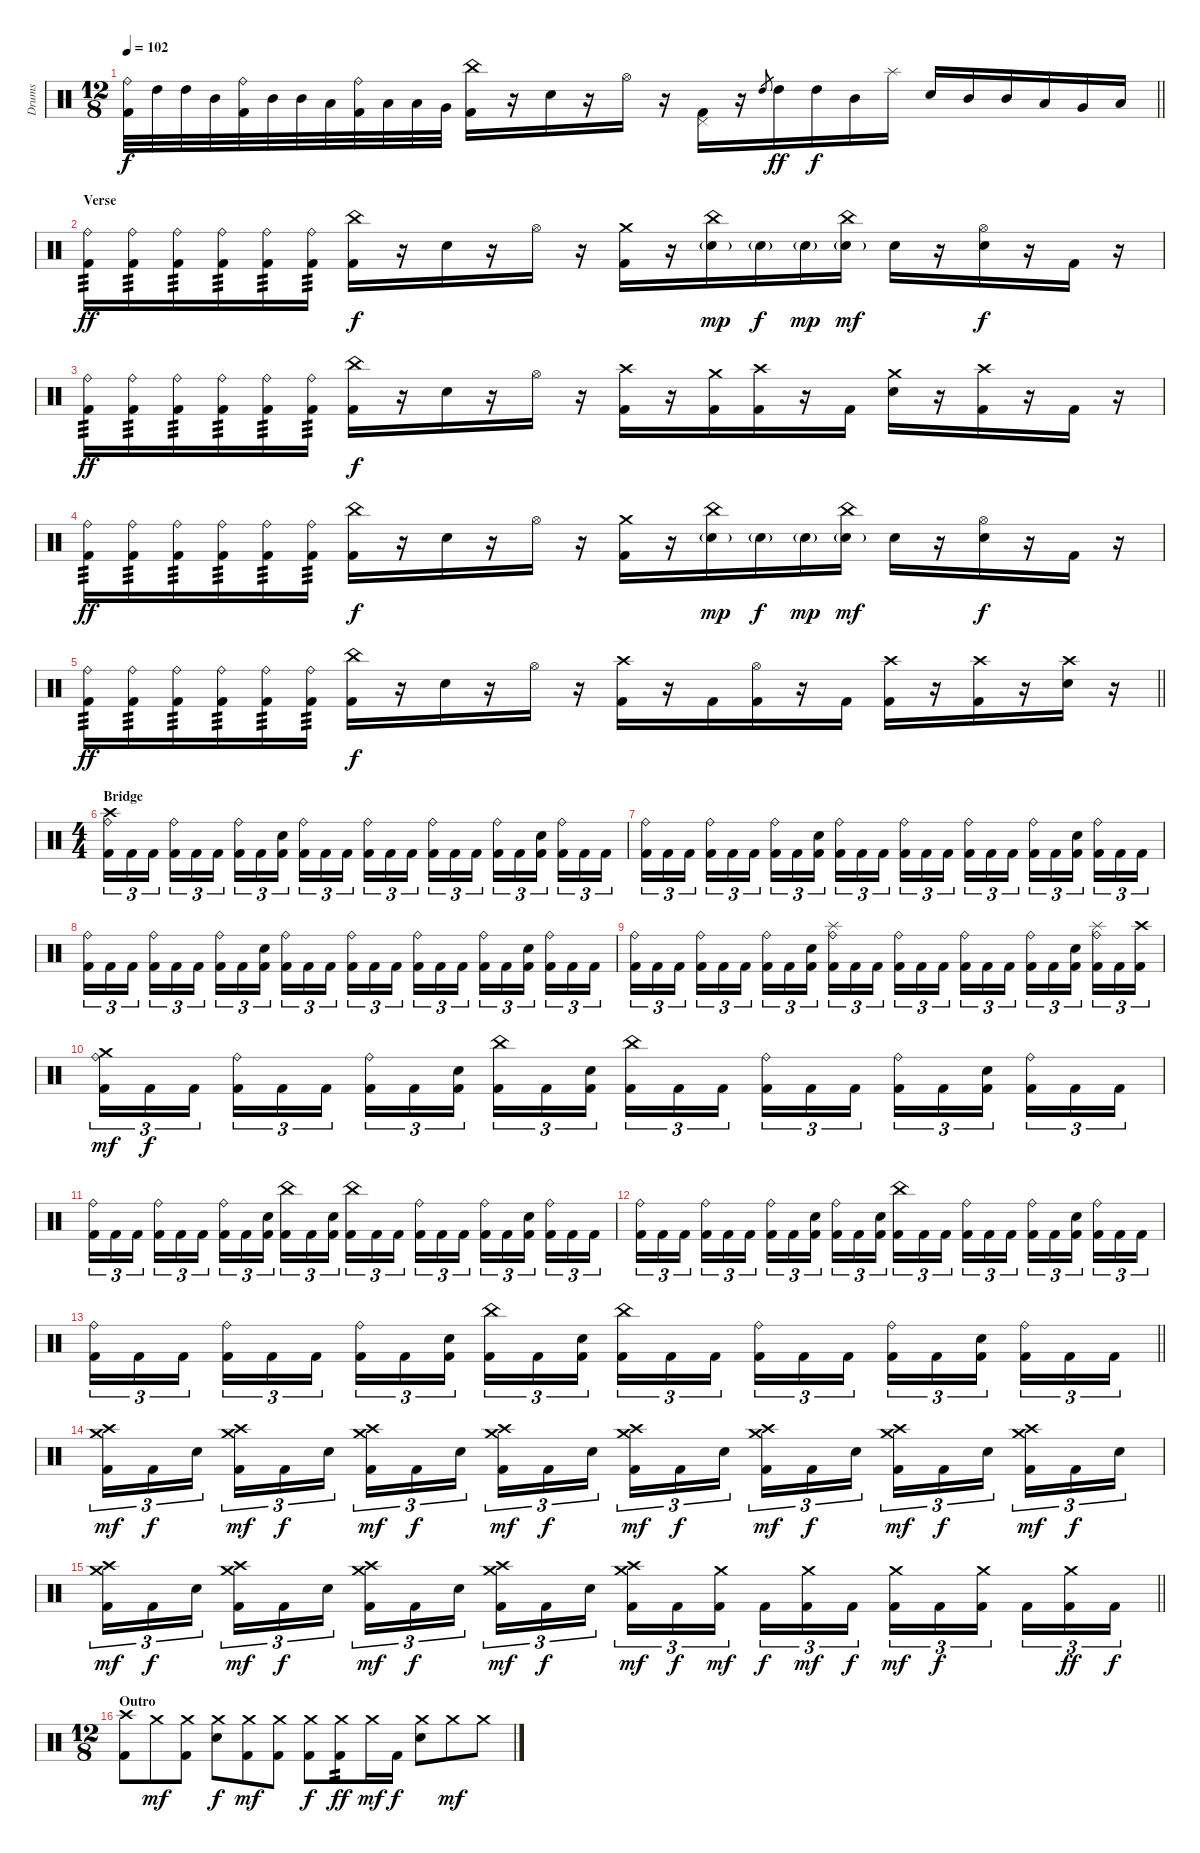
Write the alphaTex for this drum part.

\track ("Drums" "Drums") {instrument percussion}
\staff {score}
\articulation defaults
\ts (12 8)
\tempo 102
\clef neutral
\barLineRight lightlight
\ks c
("Ride (bell)" "Kick (hit) 2").32{dy f} "High Tom (hit)".32 "High Tom (hit)".32 "Mid Tom (hit)".32 ("Ride (bell)" "Kick (hit) 2").32 "Mid Tom (hit)".32 "Mid Tom (hit)".32 "Low Tom (hit)".32 ("Ride (bell)" "Kick (hit) 2").32 "Low Tom (hit)".32 "Low Tom (hit)".32 "Very Low Tom (hit)".32 ("China (hit)" "Kick (hit) 2").16 r.16 "Snare (hit) 2".16 r.16 "Hi-Hat (open)".16 r.16 ("Pedal Hi-Hat (hit)" "Kick (hit) 2").16 r.16 "High Tom (hit)".8{gr} "High Tom (hit)".16{dy ff} "High Tom (hit)".16{dy f} "Mid Tom (hit)".16 "Splash (hit)".16 "Snare (hit) 2".16 "Mid Tom (hit)".16 "Mid Tom (hit)".16 "Low Tom (hit)".16 "Very Low Tom (hit)".16 "Low Floor Tom (hit)".16 |
\section ("" "Verse")
("Ride (bell)" "Kick (hit) 2").16{tp 3 dy ff} ("Ride (bell)" "Kick (hit) 2").16{tp 3} ("Ride (bell)" "Kick (hit) 2").16{tp 3} ("Ride (bell)" "Kick (hit) 2").16{tp 3} ("Ride (bell)" "Kick (hit) 2").16{tp 3} ("Ride (bell)" "Kick (hit) 2").16{tp 3} ("China (hit)" "Kick (hit) 2").16{dy f} r.16 "Snare (hit) 2".16 r.16 "Hi-Hat (open)".16 r.16 ("Crash medium (hit)" "Kick (hit) 2").16 r.16 ("China (hit)" "Snare (hit) 2"{g}).16{dy mp} "Snare (hit) 2"{g}.16{dy f} "Snare (hit) 2"{g}.16{dy mp} ("China (hit)" "Snare (hit) 2"{g}).16{dy mf} "Snare (hit) 2".16 r.16 ("Hi-Hat (open)" "Snare (hit) 2").16{dy f} r.16 "Kick (hit) 2".16 r.16 |
("Ride (bell)" "Kick (hit) 2").16{tp 3 dy ff} ("Ride (bell)" "Kick (hit) 2").16{tp 3} ("Ride (bell)" "Kick (hit) 2").16{tp 3} ("Ride (bell)" "Kick (hit) 2").16{tp 3} ("Ride (bell)" "Kick (hit) 2").16{tp 3} ("Ride (bell)" "Kick (hit) 2").16{tp 3} ("China (hit)" "Kick (hit) 2").16{dy f} r.16 "Snare (hit) 2".16 r.16 "Hi-Hat (open)".16 r.16 ("Crash high (hit)" "Kick (hit) 2").16 r.16 ("Crash medium (hit)" "Kick (hit) 2").16 ("Crash high (hit)" "Kick (hit) 2").16 r.16 "Kick (hit) 2".16 ("Crash medium (hit)" "Snare (hit) 2").16 r.16 ("Crash high (hit)" "Kick (hit) 2").16 r.16 "Kick (hit) 2".16 r.16 |
("Ride (bell)" "Kick (hit) 2").16{tp 3 dy ff} ("Ride (bell)" "Kick (hit) 2").16{tp 3} ("Ride (bell)" "Kick (hit) 2").16{tp 3} ("Ride (bell)" "Kick (hit) 2").16{tp 3} ("Ride (bell)" "Kick (hit) 2").16{tp 3} ("Ride (bell)" "Kick (hit) 2").16{tp 3} ("China (hit)" "Kick (hit) 2").16{dy f} r.16 "Snare (hit) 2".16 r.16 "Hi-Hat (open)".16 r.16 ("Crash medium (hit)" "Kick (hit) 2").16 r.16 ("China (hit)" "Snare (hit) 2"{g}).16{dy mp} "Snare (hit) 2"{g}.16{dy f} "Snare (hit) 2"{g}.16{dy mp} ("China (hit)" "Snare (hit) 2"{g}).16{dy mf} "Snare (hit) 2".16 r.16 ("Hi-Hat (open)" "Snare (hit) 2").16{dy f} r.16 "Kick (hit) 2".16 r.16 |
\barLineRight lightlight
("Ride (bell)" "Kick (hit) 2").16{tp 3 dy ff} ("Ride (bell)" "Kick (hit) 2").16{tp 3} ("Ride (bell)" "Kick (hit) 2").16{tp 3} ("Ride (bell)" "Kick (hit) 2").16{tp 3} ("Ride (bell)" "Kick (hit) 2").16{tp 3} ("Ride (bell)" "Kick (hit) 2").16{tp 3} ("China (hit)" "Kick (hit) 2").16{dy f} r.16 "Snare (hit) 2".16 r.16 "Hi-Hat (open)".16 r.16 ("Crash high (hit)" "Kick (hit) 2").16 r.16 "Kick (hit) 2".16 ("Hi-Hat (open)" "Kick (hit) 2").16 r.16 "Kick (hit) 2".16 ("Crash high (hit)" "Kick (hit) 2").16 r.16 ("Crash high (hit)" "Kick (hit) 2").16 r.16 ("Crash high (hit)" "Snare (hit) 2").16 r.16 |
\ts (4 4)
\section ("" "Bridge")
("Ride (bell)" "Crash high (hit)" "Kick (hit) 2").16{tu (3 2)} "Kick (hit) 2".16{tu (3 2)} "Kick (hit) 2".16{tu (3 2) beam splitsecondary} ("Ride (bell)" "Kick (hit) 2").16{tu (3 2)} "Kick (hit) 2".16{tu (3 2)} "Kick (hit) 2".16{tu (3 2)} ("Ride (bell)" "Kick (hit) 2").16{tu (3 2)} "Kick (hit) 2".16{tu (3 2)} ("Snare (hit) 2" "Kick (hit) 2").16{tu (3 2) beam splitsecondary} ("Ride (bell)" "Kick (hit) 2").16{tu (3 2)} "Kick (hit) 2".16{tu (3 2)} "Kick (hit) 2".16{tu (3 2)} ("Ride (bell)" "Kick (hit) 2").16{tu (3 2)} "Kick (hit) 2".16{tu (3 2)} "Kick (hit) 2".16{tu (3 2) beam splitsecondary} ("Ride (bell)" "Kick (hit) 2").16{tu (3 2)} "Kick (hit) 2".16{tu (3 2)} "Kick (hit) 2".16{tu (3 2)} ("Ride (bell)" "Kick (hit) 2").16{tu (3 2)} "Kick (hit) 2".16{tu (3 2)} ("Snare (hit) 2" "Kick (hit) 2").16{tu (3 2) beam splitsecondary} ("Ride (bell)" "Kick (hit) 2").16{tu (3 2)} "Kick (hit) 2".16{tu (3 2)} "Kick (hit) 2".16{tu (3 2)} |
("Ride (bell)" "Kick (hit) 2").16{tu (3 2)} "Kick (hit) 2".16{tu (3 2)} "Kick (hit) 2".16{tu (3 2) beam splitsecondary} ("Ride (bell)" "Kick (hit) 2").16{tu (3 2)} "Kick (hit) 2".16{tu (3 2)} "Kick (hit) 2".16{tu (3 2)} ("Ride (bell)" "Kick (hit) 2").16{tu (3 2)} "Kick (hit) 2".16{tu (3 2)} ("Snare (hit) 2" "Kick (hit) 2").16{tu (3 2) beam splitsecondary} ("Ride (bell)" "Kick (hit) 2").16{tu (3 2)} "Kick (hit) 2".16{tu (3 2)} "Kick (hit) 2".16{tu (3 2)} ("Ride (bell)" "Kick (hit) 2").16{tu (3 2)} "Kick (hit) 2".16{tu (3 2)} "Kick (hit) 2".16{tu (3 2) beam splitsecondary} ("Ride (bell)" "Kick (hit) 2").16{tu (3 2)} "Kick (hit) 2".16{tu (3 2)} "Kick (hit) 2".16{tu (3 2)} ("Ride (bell)" "Kick (hit) 2").16{tu (3 2)} "Kick (hit) 2".16{tu (3 2)} ("Snare (hit) 2" "Kick (hit) 2").16{tu (3 2) beam splitsecondary} ("Ride (bell)" "Kick (hit) 2").16{tu (3 2)} "Kick (hit) 2".16{tu (3 2)} "Kick (hit) 2".16{tu (3 2)} |
("Ride (bell)" "Kick (hit) 2").16{tu (3 2)} "Kick (hit) 2".16{tu (3 2)} "Kick (hit) 2".16{tu (3 2) beam splitsecondary} ("Ride (bell)" "Kick (hit) 2").16{tu (3 2)} "Kick (hit) 2".16{tu (3 2)} "Kick (hit) 2".16{tu (3 2)} ("Ride (bell)" "Kick (hit) 2").16{tu (3 2)} "Kick (hit) 2".16{tu (3 2)} ("Snare (hit) 2" "Kick (hit) 2").16{tu (3 2) beam splitsecondary} ("Ride (bell)" "Kick (hit) 2").16{tu (3 2)} "Kick (hit) 2".16{tu (3 2)} "Kick (hit) 2".16{tu (3 2)} ("Ride (bell)" "Kick (hit) 2").16{tu (3 2)} "Kick (hit) 2".16{tu (3 2)} "Kick (hit) 2".16{tu (3 2) beam splitsecondary} ("Ride (bell)" "Kick (hit) 2").16{tu (3 2)} "Kick (hit) 2".16{tu (3 2)} "Kick (hit) 2".16{tu (3 2)} ("Ride (bell)" "Kick (hit) 2").16{tu (3 2)} "Kick (hit) 2".16{tu (3 2)} ("Snare (hit) 2" "Kick (hit) 2").16{tu (3 2) beam splitsecondary} ("Ride (bell)" "Kick (hit) 2").16{tu (3 2)} "Kick (hit) 2".16{tu (3 2)} "Kick (hit) 2".16{tu (3 2)} |
("Ride (bell)" "Kick (hit) 2").16{tu (3 2)} "Kick (hit) 2".16{tu (3 2)} "Kick (hit) 2".16{tu (3 2) beam splitsecondary} ("Ride (bell)" "Kick (hit) 2").16{tu (3 2)} "Kick (hit) 2".16{tu (3 2)} "Kick (hit) 2".16{tu (3 2)} ("Ride (bell)" "Kick (hit) 2").16{tu (3 2)} "Kick (hit) 2".16{tu (3 2)} ("Snare (hit) 2" "Kick (hit) 2").16{tu (3 2) beam splitsecondary} ("Ride (bell)" "Splash (hit)" "Kick (hit) 2").16{tu (3 2)} "Kick (hit) 2".16{tu (3 2)} "Kick (hit) 2".16{tu (3 2)} ("Ride (bell)" "Kick (hit) 2").16{tu (3 2)} "Kick (hit) 2".16{tu (3 2)} "Kick (hit) 2".16{tu (3 2) beam splitsecondary} ("Ride (bell)" "Kick (hit) 2").16{tu (3 2)} "Kick (hit) 2".16{tu (3 2)} "Kick (hit) 2".16{tu (3 2)} ("Ride (bell)" "Kick (hit) 2").16{tu (3 2)} "Kick (hit) 2".16{tu (3 2)} ("Snare (hit) 2" "Kick (hit) 2").16{tu (3 2) beam splitsecondary} ("Ride (bell)" "Splash (hit)" "Kick (hit) 2").16{tu (3 2)} "Kick (hit) 2".16{tu (3 2)} ("Crash high (hit)" "Kick (hit) 2").16{tu (3 2)} |
("Ride (bell)" "Crash medium (hit)" "Kick (hit) 2").16{tu (3 2) dy mf} "Kick (hit) 2".16{tu (3 2) dy f} "Kick (hit) 2".16{tu (3 2) beam splitsecondary} ("Ride (bell)" "Kick (hit) 2").16{tu (3 2)} "Kick (hit) 2".16{tu (3 2)} "Kick (hit) 2".16{tu (3 2)} ("Ride (bell)" "Kick (hit) 2").16{tu (3 2)} "Kick (hit) 2".16{tu (3 2)} ("Snare (hit) 2" "Kick (hit) 2").16{tu (3 2) beam splitsecondary} ("China (hit)" "Kick (hit) 2").16{tu (3 2)} "Kick (hit) 2".16{tu (3 2)} ("Snare (hit) 2" "Kick (hit) 2").16{tu (3 2)} ("China (hit)" "Kick (hit) 2").16{tu (3 2)} "Kick (hit) 2".16{tu (3 2)} "Kick (hit) 2".16{tu (3 2) beam splitsecondary} ("Ride (bell)" "Kick (hit) 2").16{tu (3 2)} "Kick (hit) 2".16{tu (3 2)} "Kick (hit) 2".16{tu (3 2)} ("Ride (bell)" "Kick (hit) 2").16{tu (3 2)} "Kick (hit) 2".16{tu (3 2)} ("Snare (hit) 2" "Kick (hit) 2").16{tu (3 2) beam splitsecondary} ("Ride (bell)" "Kick (hit) 2").16{tu (3 2)} "Kick (hit) 2".16{tu (3 2)} "Kick (hit) 2".16{tu (3 2)} |
("Ride (bell)" "Kick (hit) 2").16{tu (3 2)} "Kick (hit) 2".16{tu (3 2)} "Kick (hit) 2".16{tu (3 2) beam splitsecondary} ("Ride (bell)" "Kick (hit) 2").16{tu (3 2)} "Kick (hit) 2".16{tu (3 2)} "Kick (hit) 2".16{tu (3 2)} ("Ride (bell)" "Kick (hit) 2").16{tu (3 2)} "Kick (hit) 2".16{tu (3 2)} ("Snare (hit) 2" "Kick (hit) 2").16{tu (3 2) beam splitsecondary} ("China (hit)" "Kick (hit) 2").16{tu (3 2)} "Kick (hit) 2".16{tu (3 2)} ("Snare (hit) 2" "Kick (hit) 2").16{tu (3 2)} ("China (hit)" "Kick (hit) 2").16{tu (3 2)} "Kick (hit) 2".16{tu (3 2)} "Kick (hit) 2".16{tu (3 2) beam splitsecondary} ("Ride (bell)" "Kick (hit) 2").16{tu (3 2)} "Kick (hit) 2".16{tu (3 2)} "Kick (hit) 2".16{tu (3 2)} ("Ride (bell)" "Kick (hit) 2").16{tu (3 2)} "Kick (hit) 2".16{tu (3 2)} ("Snare (hit) 2" "Kick (hit) 2").16{tu (3 2) beam splitsecondary} ("Ride (bell)" "Kick (hit) 2").16{tu (3 2)} "Kick (hit) 2".16{tu (3 2)} "Kick (hit) 2".16{tu (3 2)} |
("Ride (bell)" "Kick (hit) 2").16{tu (3 2)} "Kick (hit) 2".16{tu (3 2)} "Kick (hit) 2".16{tu (3 2) beam splitsecondary} ("Ride (bell)" "Kick (hit) 2").16{tu (3 2)} "Kick (hit) 2".16{tu (3 2)} "Kick (hit) 2".16{tu (3 2)} ("Ride (bell)" "Kick (hit) 2").16{tu (3 2)} "Kick (hit) 2".16{tu (3 2)} ("Snare (hit) 2" "Kick (hit) 2").16{tu (3 2) beam splitsecondary} ("Ride (bell)" "Kick (hit) 2").16{tu (3 2)} "Kick (hit) 2".16{tu (3 2)} ("Snare (hit) 2" "Kick (hit) 2").16{tu (3 2)} ("China (hit)" "Kick (hit) 2").16{tu (3 2)} "Kick (hit) 2".16{tu (3 2)} "Kick (hit) 2".16{tu (3 2) beam splitsecondary} ("Ride (bell)" "Kick (hit) 2").16{tu (3 2)} "Kick (hit) 2".16{tu (3 2)} "Kick (hit) 2".16{tu (3 2)} ("Ride (bell)" "Kick (hit) 2").16{tu (3 2)} "Kick (hit) 2".16{tu (3 2)} ("Snare (hit) 2" "Kick (hit) 2").16{tu (3 2) beam splitsecondary} ("Ride (bell)" "Kick (hit) 2").16{tu (3 2)} "Kick (hit) 2".16{tu (3 2)} "Kick (hit) 2".16{tu (3 2)} |
\barLineRight lightlight
("Ride (bell)" "Kick (hit) 2").16{tu (3 2)} "Kick (hit) 2".16{tu (3 2)} "Kick (hit) 2".16{tu (3 2) beam splitsecondary} ("Ride (bell)" "Kick (hit) 2").16{tu (3 2)} "Kick (hit) 2".16{tu (3 2)} "Kick (hit) 2".16{tu (3 2)} ("Ride (bell)" "Kick (hit) 2").16{tu (3 2)} "Kick (hit) 2".16{tu (3 2)} ("Snare (hit) 2" "Kick (hit) 2").16{tu (3 2) beam splitsecondary} ("China (hit)" "Kick (hit) 2").16{tu (3 2)} "Kick (hit) 2".16{tu (3 2)} ("Snare (hit) 2" "Kick (hit) 2").16{tu (3 2)} ("China (hit)" "Kick (hit) 2").16{tu (3 2)} "Kick (hit) 2".16{tu (3 2)} "Kick (hit) 2".16{tu (3 2) beam splitsecondary} ("Ride (bell)" "Kick (hit) 2").16{tu (3 2)} "Kick (hit) 2".16{tu (3 2)} "Kick (hit) 2".16{tu (3 2)} ("Ride (bell)" "Kick (hit) 2").16{tu (3 2)} "Kick (hit) 2".16{tu (3 2)} ("Snare (hit) 2" "Kick (hit) 2").16{tu (3 2) beam splitsecondary} ("Ride (bell)" "Kick (hit) 2").16{tu (3 2)} "Kick (hit) 2".16{tu (3 2)} "Kick (hit) 2".16{tu (3 2)} |
("Crash medium (hit)" "Crash high (hit)" "Kick (hit) 2").16{tu (3 2) dy mf} "Kick (hit) 2".16{tu (3 2) dy f} "Snare (hit) 2".16{tu (3 2) beam splitsecondary} ("Crash medium (hit)" "Crash high (hit)" "Kick (hit) 2").16{tu (3 2) dy mf} "Kick (hit) 2".16{tu (3 2) dy f} "Snare (hit) 2".16{tu (3 2)} ("Crash medium (hit)" "Crash high (hit)" "Kick (hit) 2").16{tu (3 2) dy mf} "Kick (hit) 2".16{tu (3 2) dy f} "Snare (hit) 2".16{tu (3 2) beam splitsecondary} ("Crash medium (hit)" "Crash high (hit)" "Kick (hit) 2").16{tu (3 2) dy mf} "Kick (hit) 2".16{tu (3 2) dy f} "Snare (hit) 2".16{tu (3 2)} ("Crash medium (hit)" "Crash high (hit)" "Kick (hit) 2").16{tu (3 2) dy mf} "Kick (hit) 2".16{tu (3 2) dy f} "Snare (hit) 2".16{tu (3 2) beam splitsecondary} ("Crash medium (hit)" "Crash high (hit)" "Kick (hit) 2").16{tu (3 2) dy mf} "Kick (hit) 2".16{tu (3 2) dy f} "Snare (hit) 2".16{tu (3 2)} ("Crash medium (hit)" "Crash high (hit)" "Kick (hit) 2").16{tu (3 2) dy mf} "Kick (hit) 2".16{tu (3 2) dy f} "Snare (hit) 2".16{tu (3 2) beam splitsecondary} ("Crash medium (hit)" "Crash high (hit)" "Kick (hit) 2").16{tu (3 2) dy mf} "Kick (hit) 2".16{tu (3 2) dy f} "Snare (hit) 2".16{tu (3 2)} |
\barLineRight lightlight
("Crash medium (hit)" "Crash high (hit)" "Kick (hit) 2").16{tu (3 2) dy mf} "Kick (hit) 2".16{tu (3 2) dy f} "Snare (hit) 2".16{tu (3 2) beam splitsecondary} ("Crash medium (hit)" "Crash high (hit)" "Kick (hit) 2").16{tu (3 2) dy mf} "Kick (hit) 2".16{tu (3 2) dy f} "Snare (hit) 2".16{tu (3 2)} ("Crash medium (hit)" "Crash high (hit)" "Kick (hit) 2").16{tu (3 2) dy mf} "Kick (hit) 2".16{tu (3 2) dy f} "Snare (hit) 2".16{tu (3 2) beam splitsecondary} ("Crash medium (hit)" "Crash high (hit)" "Kick (hit) 2").16{tu (3 2) dy mf} "Kick (hit) 2".16{tu (3 2) dy f} "Snare (hit) 2".16{tu (3 2)} ("Crash medium (hit)" "Crash high (hit)" "Kick (hit) 2").16{tu (3 2) dy mf} "Kick (hit) 2".16{tu (3 2) dy f} ("Crash medium (hit)" "Kick (hit) 2").16{tu (3 2) dy mf beam splitsecondary} "Kick (hit) 2".16{tu (3 2) dy f} ("Crash medium (hit)" "Kick (hit) 2").16{tu (3 2) dy mf} "Kick (hit) 2".16{tu (3 2) dy f} ("Crash medium (hit)" "Kick (hit) 2").16{tu (3 2) dy mf} "Kick (hit) 2".16{tu (3 2) dy f} ("Crash medium (hit)" "Kick (hit) 2").16{tu (3 2) beam splitsecondary} "Kick (hit) 2".16{tu (3 2)} ("Crash medium (hit)" "Kick (hit) 2").16{tu (3 2) dy ff} "Kick (hit) 2".16{tu (3 2) dy f} |
\ts (12 8)
\section ("" "Outro")
("Crash high (hit)" "Kick (hit) 2").8 "Crash medium (hit)".8{dy mf} ("Crash medium (hit)" "Kick (hit) 2").8 ("Crash medium (hit)" "Snare (hit) 2").8{dy f} ("Crash medium (hit)" "Kick (hit) 2").8{dy mf} ("Crash medium (hit)" "Kick (hit) 2").8 ("Crash medium (hit)" "Kick (hit) 2").8{dy f} ("Crash medium (hit)" "Kick (hit) 2").8{tp 2 dy ff} "Crash medium (hit)".16{dy mf} "Kick (hit) 2".16{dy f} ("Crash medium (hit)" "Snare (hit) 2").8 "Crash medium (hit)".8{dy mf} "Crash medium (hit)".8
